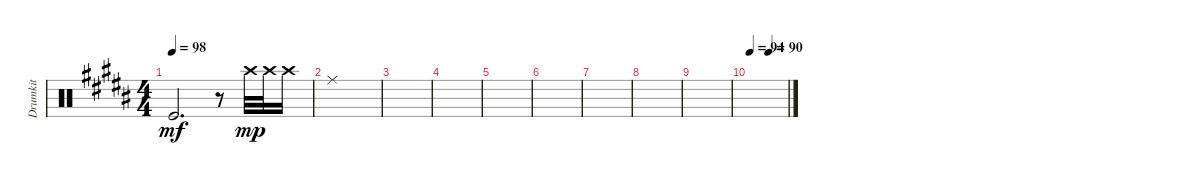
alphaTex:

\track ("Drumkit" "Drumkit") {instrument percussion}
\staff {score}
\articulation defaults
\ts (4 4)
\tempo 98
\clef neutral
\ks b "Kick (hit)".2{d dy mf}
r.8 "Crash high (hit)".32{dy mp} "Crash high (hit)".32 "Crash high (hit)".16 |
"Ride (middle)".1 |
|
|
|
|
|
|
|
\tempo 94
\tempo (90 0.5)
